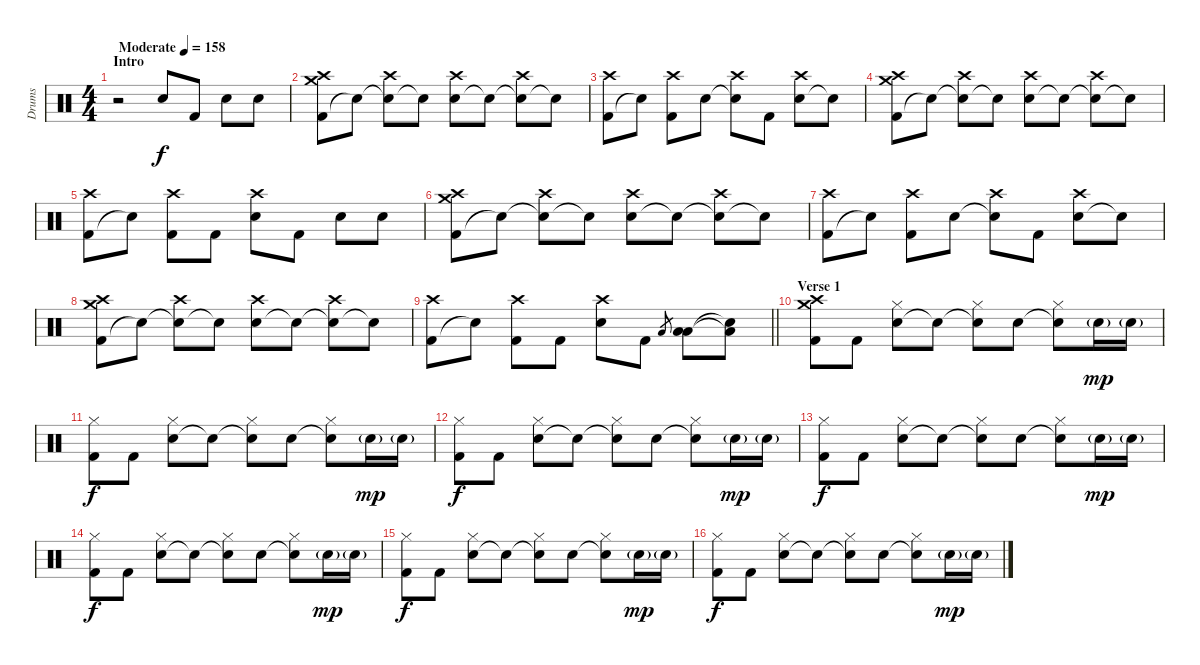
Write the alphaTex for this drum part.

\track ("Drums" "Drums") {instrument percussion}
\staff {score}
\articulation defaults
\ts (4 4)
\section ("" "Intro")
\tempo (158 "Moderate")
\clef neutral
\ks c
r.2{dy f} "Electric Snare (hit)".8 "Kick (hit) 2".8 "Electric Snare (hit)".8 "Electric Snare (hit)".8 |
("Kick (hit) 2" "Crash medium (hit)" "Crash high (hit)").8 "Snare (hit)"{t}.8 ("Snare (hit)"{t} "Crash high (hit)").8 "Snare (hit)"{t}.8 ("Electric Snare (hit)" "Crash high (hit)").8 "Snare (hit)"{t}.8 ("Snare (hit)"{t} "Crash high (hit)").8 "Snare (hit)"{t}.8 |
("Kick (hit) 2" "Crash high (hit)").8 "Snare (hit)"{t}.8 ("Kick (hit) 2" "Crash high (hit)").8 "Electric Snare (hit)".8 ("Snare (hit)"{t} "Crash high (hit)").8 "Kick (hit) 2".8 ("Electric Snare (hit)" "Crash high (hit)").8 "Snare (hit)"{t}.8 |
("Kick (hit) 2" "Crash medium (hit)" "Crash high (hit)").8 "Snare (hit)"{t}.8 ("Snare (hit)"{t} "Crash high (hit)").8 "Snare (hit)"{t}.8 ("Electric Snare (hit)" "Crash high (hit)").8 "Snare (hit)"{t}.8 ("Snare (hit)"{t} "Crash high (hit)").8 "Snare (hit)"{t}.8 |
("Kick (hit) 2" "Crash high (hit)").8 "Snare (hit)"{t}.8 ("Kick (hit) 2" "Crash high (hit)").8 "Kick (hit) 2".8 ("Electric Snare (hit)" "Crash high (hit)").8 "Kick (hit) 2".8 "Electric Snare (hit)".8 "Electric Snare (hit)".8 |
("Kick (hit) 2" "Crash medium (hit)" "Crash high (hit)").8 "Snare (hit)"{t}.8 ("Snare (hit)"{t} "Crash high (hit)").8 "Snare (hit)"{t}.8 ("Electric Snare (hit)" "Crash high (hit)").8 "Snare (hit)"{t}.8 ("Snare (hit)"{t} "Crash high (hit)").8 "Snare (hit)"{t}.8 |
("Kick (hit) 2" "Crash high (hit)").8 "Snare (hit)"{t}.8 ("Kick (hit) 2" "Crash high (hit)").8 "Electric Snare (hit)".8 ("Snare (hit)"{t} "Crash high (hit)").8 "Kick (hit) 2".8 ("Electric Snare (hit)" "Crash high (hit)").8 "Snare (hit)"{t}.8 |
("Kick (hit) 2" "Crash medium (hit)" "Crash high (hit)").8 "Snare (hit)"{t}.8 ("Snare (hit)"{t} "Crash high (hit)").8 "Snare (hit)"{t}.8 ("Electric Snare (hit)" "Crash high (hit)").8 "Snare (hit)"{t}.8 ("Snare (hit)"{t} "Crash high (hit)").8 "Snare (hit)"{t}.8 |
\barLineRight lightlight
("Kick (hit) 2" "Crash high (hit)").8 "Snare (hit)"{t}.8 ("Kick (hit) 2" "Crash high (hit)").8 "Kick (hit) 2".8 ("Electric Snare (hit)" "Crash high (hit)").8 "Kick (hit) 2".8 "Low Tom (hit)".8{gr} ("Low Tom (hit)" "Low Floor Tom (hit)").8 ("Low Floor Tom (hit)"{t} "Snare (hit)"{t}).8 |
\section ("" "Verse 1")
("Kick (hit) 2" "Crash medium (hit)" "Crash high (hit)").8 "Kick (hit) 2".8 ("Electric Snare (hit)" "Hi-Hat (closed)").8 "Snare (hit)"{t}.8 ("Snare (hit)"{t} "Hi-Hat (closed)").8 "Electric Snare (hit)".8 ("Snare (hit)"{t} "Hi-Hat (closed)").8 "Electric Snare (hit)"{g}.16{dy mp} "Electric Snare (hit)"{g}.16 |
("Kick (hit) 2" "Hi-Hat (closed)").8{dy f} "Kick (hit) 2".8 ("Electric Snare (hit)" "Hi-Hat (closed)").8 "Snare (hit)"{t}.8 ("Snare (hit)"{t} "Hi-Hat (closed)").8 "Electric Snare (hit)".8 ("Snare (hit)"{t} "Hi-Hat (closed)").8 "Electric Snare (hit)"{g}.16{dy mp} "Electric Snare (hit)"{g}.16 |
("Kick (hit) 2" "Hi-Hat (closed)").8{dy f} "Kick (hit) 2".8 ("Electric Snare (hit)" "Hi-Hat (closed)").8 "Snare (hit)"{t}.8 ("Snare (hit)"{t} "Hi-Hat (closed)").8 "Electric Snare (hit)".8 ("Snare (hit)"{t} "Hi-Hat (closed)").8 "Electric Snare (hit)"{g}.16{dy mp} "Electric Snare (hit)"{g}.16 |
("Kick (hit) 2" "Hi-Hat (closed)").8{dy f} "Kick (hit) 2".8 ("Electric Snare (hit)" "Hi-Hat (closed)").8 "Snare (hit)"{t}.8 ("Snare (hit)"{t} "Hi-Hat (closed)").8 "Electric Snare (hit)".8 ("Snare (hit)"{t} "Hi-Hat (closed)").8 "Electric Snare (hit)"{g}.16{dy mp} "Electric Snare (hit)"{g}.16 |
("Kick (hit) 2" "Hi-Hat (closed)").8{dy f} "Kick (hit) 2".8 ("Electric Snare (hit)" "Hi-Hat (closed)").8 "Snare (hit)"{t}.8 ("Snare (hit)"{t} "Hi-Hat (closed)").8 "Electric Snare (hit)".8 ("Snare (hit)"{t} "Hi-Hat (closed)").8 "Electric Snare (hit)"{g}.16{dy mp} "Electric Snare (hit)"{g}.16 |
("Kick (hit) 2" "Hi-Hat (closed)").8{dy f} "Kick (hit) 2".8 ("Electric Snare (hit)" "Hi-Hat (closed)").8 "Snare (hit)"{t}.8 ("Snare (hit)"{t} "Hi-Hat (closed)").8 "Electric Snare (hit)".8 ("Snare (hit)"{t} "Hi-Hat (closed)").8 "Electric Snare (hit)"{g}.16{dy mp} "Electric Snare (hit)"{g}.16 |
("Kick (hit) 2" "Hi-Hat (closed)").8{dy f} "Kick (hit) 2".8 ("Electric Snare (hit)" "Hi-Hat (closed)").8 "Snare (hit)"{t}.8 ("Snare (hit)"{t} "Hi-Hat (closed)").8 "Electric Snare (hit)".8 ("Snare (hit)"{t} "Hi-Hat (closed)").8 "Electric Snare (hit)"{g}.16{dy mp} "Electric Snare (hit)"{g}.16
